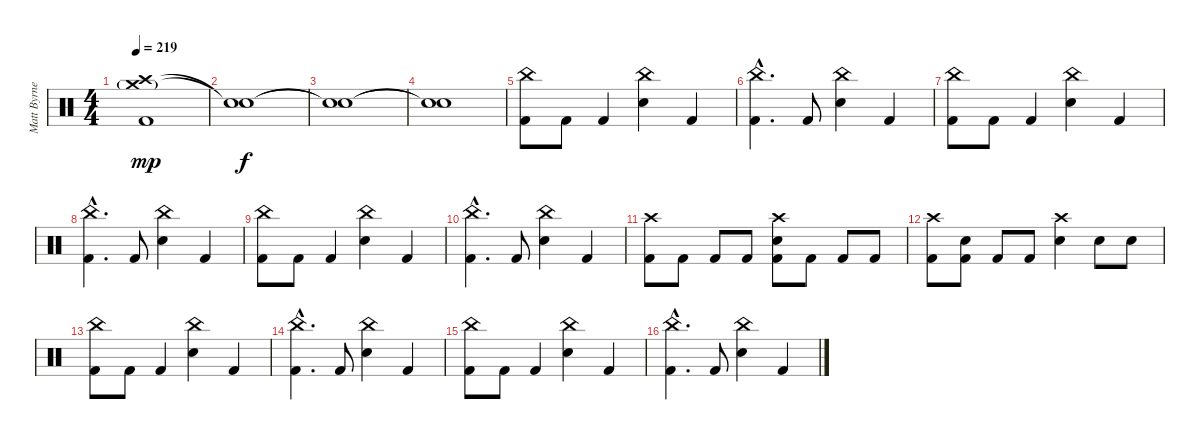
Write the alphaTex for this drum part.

\track ("Matt Byrne (Drums)" "Matt Byrne") {instrument percussion}
\staff {score}
\articulation defaults
\ts (4 4)
\tempo 219
\clef neutral
\ks c
("Crash medium (hit)"{g} "Crash high (hit)" "Kick (hit) 2").1{dy mp} |
("Snare (hit)"{t} "Snare (hit)"{t}).1{dy f} |
("Snare (hit)"{t} "Snare (hit)"{t}).1 |
("Snare (hit)"{t} "Snare (hit)"{t}).1 |
("China (hit)" "Kick (hit) 2").8 "Kick (hit) 2".8 "Kick (hit) 2".4 ("China (hit)" "Snare (hit) 2").4 "Kick (hit) 2".4 |
("China (hit)"{hac} "Kick (hit) 2"{hac}).4{d} "Kick (hit) 2".8 ("China (hit)" "Snare (hit) 2").4 "Kick (hit) 2".4 |
("China (hit)" "Kick (hit) 2").8 "Kick (hit) 2".8 "Kick (hit) 2".4 ("China (hit)" "Snare (hit) 2").4 "Kick (hit) 2".4 |
("China (hit)"{hac} "Kick (hit) 2"{hac}).4{d} "Kick (hit) 2".8 ("China (hit)" "Snare (hit) 2").4 "Kick (hit) 2".4 |
("China (hit)" "Kick (hit) 2").8 "Kick (hit) 2".8 "Kick (hit) 2".4 ("China (hit)" "Snare (hit) 2").4 "Kick (hit) 2".4 |
("China (hit)"{hac} "Kick (hit) 2"{hac}).4{d} "Kick (hit) 2".8 ("China (hit)" "Snare (hit) 2").4 "Kick (hit) 2".4 |
("Crash high (hit)" "Kick (hit) 2").8 "Kick (hit) 2".8 "Kick (hit) 2".8 "Kick (hit) 2".8 ("Crash high (hit)" "Snare (hit) 2" "Kick (hit) 2").8 "Kick (hit) 2".8 "Kick (hit) 2".8 "Kick (hit) 2".8 |
("Crash high (hit)" "Kick (hit) 2").8 ("Snare (hit) 2" "Kick (hit) 2").8 "Kick (hit) 2".8 "Kick (hit) 2".8 ("Snare (hit) 2" "Crash high (hit)").4 "Snare (hit) 2".8 "Snare (hit) 2".8 |
("China (hit)" "Kick (hit) 2").8 "Kick (hit) 2".8 "Kick (hit) 2".4 ("China (hit)" "Snare (hit) 2").4 "Kick (hit) 2".4 |
("China (hit)"{hac} "Kick (hit) 2"{hac}).4{d} "Kick (hit) 2".8 ("China (hit)" "Snare (hit) 2").4 "Kick (hit) 2".4 |
("China (hit)" "Kick (hit) 2").8 "Kick (hit) 2".8 "Kick (hit) 2".4 ("China (hit)" "Snare (hit) 2").4 "Kick (hit) 2".4 |
("China (hit)"{hac} "Kick (hit) 2"{hac}).4{d} "Kick (hit) 2".8 ("China (hit)" "Snare (hit) 2").4 "Kick (hit) 2".4
